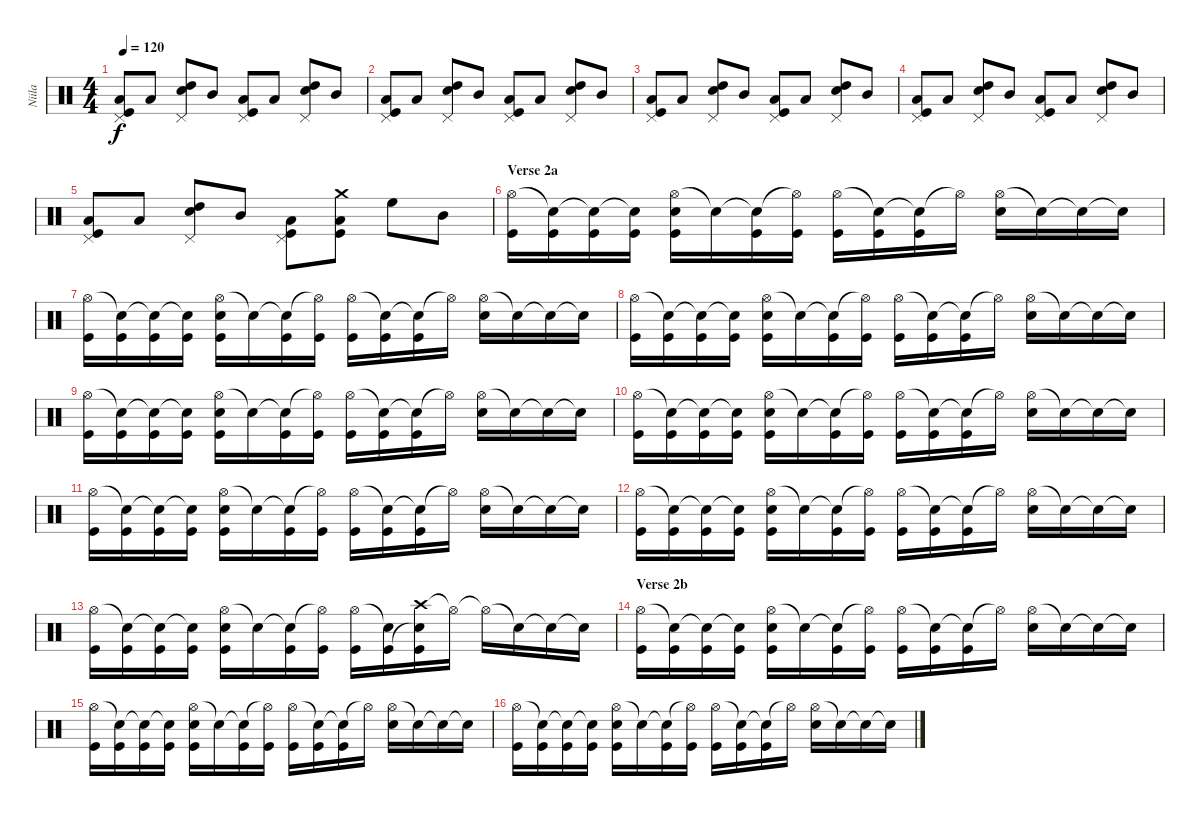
\track ("Niila" "Niila") {instrument percussion}
\staff {score}
\articulation defaults
\ts (4 4)
\tempo 120
\clef neutral
\ks c
("Pedal Hi-Hat (hit)" "Low Tom (hit)" "Kick (hit)").8{dy f volume 10} "Low Tom (hit)".8 ("Pedal Hi-Hat (hit)" "High Tom (hit)" "Snare (hit) 2").8 "Mid Tom (hit)".8 ("Pedal Hi-Hat (hit)" "Low Tom (hit)" "Kick (hit)").8 "Low Tom (hit)".8 ("Pedal Hi-Hat (hit)" "High Tom (hit)" "Snare (hit) 2").8 "Mid Tom (hit)".8 |
("Pedal Hi-Hat (hit)" "Low Tom (hit)" "Kick (hit)").8{volume 10} "Low Tom (hit)".8 ("Pedal Hi-Hat (hit)" "High Tom (hit)" "Snare (hit) 2").8 "Mid Tom (hit)".8 ("Pedal Hi-Hat (hit)" "Low Tom (hit)" "Kick (hit)").8 "Low Tom (hit)".8 ("Pedal Hi-Hat (hit)" "High Tom (hit)" "Snare (hit) 2").8 "Mid Tom (hit)".8 |
("Pedal Hi-Hat (hit)" "Low Tom (hit)" "Kick (hit)").8{volume 10} "Low Tom (hit)".8 ("Pedal Hi-Hat (hit)" "High Tom (hit)" "Snare (hit) 2").8 "Mid Tom (hit)".8 ("Pedal Hi-Hat (hit)" "Low Tom (hit)" "Kick (hit)").8 "Low Tom (hit)".8 ("Pedal Hi-Hat (hit)" "High Tom (hit)" "Snare (hit) 2").8 "Mid Tom (hit)".8 |
("Pedal Hi-Hat (hit)" "Low Tom (hit)" "Kick (hit)").8{volume 10} "Low Tom (hit)".8 ("Pedal Hi-Hat (hit)" "High Tom (hit)" "Snare (hit) 2").8 "Mid Tom (hit)".8 ("Pedal Hi-Hat (hit)" "Low Tom (hit)" "Kick (hit)").8 "Low Tom (hit)".8 ("Pedal Hi-Hat (hit)" "High Tom (hit)" "Snare (hit) 2").8 "Mid Tom (hit)".8 |
("Pedal Hi-Hat (hit)" "Low Tom (hit)" "Kick (hit)").8 "Low Tom (hit)".8 ("Pedal Hi-Hat (hit)" "High Tom (hit)" "Snare (hit) 2").8 "Mid Tom (hit)".8 ("Pedal Hi-Hat (hit)" "Low Tom (hit)" "Kick (hit)").8 ("Crash medium (hit)" "Low Tom (hit)" "Kick (hit)").8 "High Floor Tom (hit)".8 "Mid Tom (hit)".8 |
\section ("" "Verse 2a")
("Hi-Hat (open)" "Kick (hit)").16 ("Snare (hit)"{t} "Kick (hit)").16 ("Snare (hit)"{t} "Kick (hit)").16 ("Snare (hit)"{t} "Kick (hit)").16 ("Hi-Hat (open)" "Snare (hit) 2" "Kick (hit)").16 "Snare (hit)"{t}.16 ("Snare (hit)"{t} "Kick (hit)").16 ("Hi-Hat (open)"{t} "Kick (hit)").16 ("Hi-Hat (open)" "Kick (hit)").16 ("Snare (hit)"{t} "Kick (hit)").16 ("Snare (hit)"{t} "Kick (hit)").16 "Hi-Hat (open)"{t}.16 ("Hi-Hat (open)" "Snare (hit) 2").16 "Snare (hit)"{t}.16 "Snare (hit)"{t}.16 "Snare (hit)"{t}.16 |
("Hi-Hat (open)" "Kick (hit)").16 ("Snare (hit)"{t} "Kick (hit)").16 ("Snare (hit)"{t} "Kick (hit)").16 ("Snare (hit)"{t} "Kick (hit)").16 ("Hi-Hat (open)" "Snare (hit) 2" "Kick (hit)").16 "Snare (hit)"{t}.16 ("Snare (hit)"{t} "Kick (hit)").16 ("Hi-Hat (open)"{t} "Kick (hit)").16 ("Hi-Hat (open)" "Kick (hit)").16 ("Snare (hit)"{t} "Kick (hit)").16 ("Snare (hit)"{t} "Kick (hit)").16 "Hi-Hat (open)"{t}.16 ("Hi-Hat (open)" "Snare (hit) 2").16 "Snare (hit)"{t}.16 "Snare (hit)"{t}.16 "Snare (hit)"{t}.16 |
("Hi-Hat (open)" "Kick (hit)").16 ("Snare (hit)"{t} "Kick (hit)").16 ("Snare (hit)"{t} "Kick (hit)").16 ("Snare (hit)"{t} "Kick (hit)").16 ("Hi-Hat (open)" "Snare (hit) 2" "Kick (hit)").16 "Snare (hit)"{t}.16 ("Snare (hit)"{t} "Kick (hit)").16 ("Hi-Hat (open)"{t} "Kick (hit)").16 ("Hi-Hat (open)" "Kick (hit)").16 ("Snare (hit)"{t} "Kick (hit)").16 ("Snare (hit)"{t} "Kick (hit)").16 "Hi-Hat (open)"{t}.16 ("Hi-Hat (open)" "Snare (hit) 2").16 "Snare (hit)"{t}.16 "Snare (hit)"{t}.16 "Snare (hit)"{t}.16 |
("Hi-Hat (open)" "Kick (hit)").16 ("Snare (hit)"{t} "Kick (hit)").16 ("Snare (hit)"{t} "Kick (hit)").16 ("Snare (hit)"{t} "Kick (hit)").16 ("Hi-Hat (open)" "Snare (hit) 2" "Kick (hit)").16 "Snare (hit)"{t}.16 ("Snare (hit)"{t} "Kick (hit)").16 ("Hi-Hat (open)"{t} "Kick (hit)").16 ("Hi-Hat (open)" "Kick (hit)").16 ("Snare (hit)"{t} "Kick (hit)").16 ("Snare (hit)"{t} "Kick (hit)").16 "Hi-Hat (open)"{t}.16 ("Hi-Hat (open)" "Snare (hit) 2").16 "Snare (hit)"{t}.16 "Snare (hit)"{t}.16 "Snare (hit)"{t}.16 |
("Hi-Hat (open)" "Kick (hit)").16 ("Snare (hit)"{t} "Kick (hit)").16 ("Snare (hit)"{t} "Kick (hit)").16 ("Snare (hit)"{t} "Kick (hit)").16 ("Hi-Hat (open)" "Snare (hit) 2" "Kick (hit)").16 "Snare (hit)"{t}.16 ("Snare (hit)"{t} "Kick (hit)").16 ("Hi-Hat (open)"{t} "Kick (hit)").16 ("Hi-Hat (open)" "Kick (hit)").16 ("Snare (hit)"{t} "Kick (hit)").16 ("Snare (hit)"{t} "Kick (hit)").16 "Hi-Hat (open)"{t}.16 ("Hi-Hat (open)" "Snare (hit) 2").16 "Snare (hit)"{t}.16 "Snare (hit)"{t}.16 "Snare (hit)"{t}.16 |
("Hi-Hat (open)" "Kick (hit)").16 ("Snare (hit)"{t} "Kick (hit)").16 ("Snare (hit)"{t} "Kick (hit)").16 ("Snare (hit)"{t} "Kick (hit)").16 ("Hi-Hat (open)" "Snare (hit) 2" "Kick (hit)").16 "Snare (hit)"{t}.16 ("Snare (hit)"{t} "Kick (hit)").16 ("Hi-Hat (open)"{t} "Kick (hit)").16 ("Hi-Hat (open)" "Kick (hit)").16 ("Snare (hit)"{t} "Kick (hit)").16 ("Snare (hit)"{t} "Kick (hit)").16 "Hi-Hat (open)"{t}.16 ("Hi-Hat (open)" "Snare (hit) 2").16 "Snare (hit)"{t}.16 "Snare (hit)"{t}.16 "Snare (hit)"{t}.16 |
("Hi-Hat (open)" "Kick (hit)").16 ("Snare (hit)"{t} "Kick (hit)").16 ("Snare (hit)"{t} "Kick (hit)").16 ("Snare (hit)"{t} "Kick (hit)").16 ("Hi-Hat (open)" "Snare (hit) 2" "Kick (hit)").16 "Snare (hit)"{t}.16 ("Snare (hit)"{t} "Kick (hit)").16 ("Hi-Hat (open)"{t} "Kick (hit)").16 ("Hi-Hat (open)" "Kick (hit)").16 ("Snare (hit)"{t} "Kick (hit)").16 ("Snare (hit)"{t} "Kick (hit)").16 "Hi-Hat (open)"{t}.16 ("Hi-Hat (open)" "Snare (hit) 2").16 "Snare (hit)"{t}.16 "Snare (hit)"{t}.16 "Snare (hit)"{t}.16 |
("Hi-Hat (open)" "Kick (hit)").16 ("Snare (hit)"{t} "Kick (hit)").16 ("Snare (hit)"{t} "Kick (hit)").16 ("Snare (hit)"{t} "Kick (hit)").16 ("Hi-Hat (open)" "Snare (hit) 2" "Kick (hit)").16 "Snare (hit)"{t}.16 ("Snare (hit)"{t} "Kick (hit)").16 ("Hi-Hat (open)"{t} "Kick (hit)").16 ("Hi-Hat (open)" "Kick (hit)").16 ("Snare (hit)"{t} "Kick (hit)").16 ("Crash high (hit)" "Snare (hit)"{t} "Kick (hit)").16 "Hi-Hat (open)"{t}.16 "Hi-Hat (open)"{t}.16 "Snare (hit)"{t}.16 "Snare (hit)"{t}.16 "Snare (hit)"{t}.16 |
\section ("" "Verse 2b")
("Hi-Hat (open)" "Kick (hit)").16 ("Snare (hit)"{t} "Kick (hit)").16 ("Snare (hit)"{t} "Kick (hit)").16 ("Snare (hit)"{t} "Kick (hit)").16 ("Hi-Hat (open)" "Snare (hit) 2" "Kick (hit)").16 "Snare (hit)"{t}.16 ("Snare (hit)"{t} "Kick (hit)").16 ("Hi-Hat (open)"{t} "Kick (hit)").16 ("Hi-Hat (open)" "Kick (hit)").16 ("Snare (hit)"{t} "Kick (hit)").16 ("Snare (hit)"{t} "Kick (hit)").16 "Hi-Hat (open)"{t}.16 ("Hi-Hat (open)" "Snare (hit) 2").16 "Snare (hit)"{t}.16 "Snare (hit)"{t}.16 "Snare (hit)"{t}.16 |
("Hi-Hat (open)" "Kick (hit)").16 ("Snare (hit)"{t} "Kick (hit)").16 ("Snare (hit)"{t} "Kick (hit)").16 ("Snare (hit)"{t} "Kick (hit)").16 ("Hi-Hat (open)" "Snare (hit) 2" "Kick (hit)").16 "Snare (hit)"{t}.16 ("Snare (hit)"{t} "Kick (hit)").16 ("Hi-Hat (open)"{t} "Kick (hit)").16 ("Hi-Hat (open)" "Kick (hit)").16 ("Snare (hit)"{t} "Kick (hit)").16 ("Snare (hit)"{t} "Kick (hit)").16 "Hi-Hat (open)"{t}.16 ("Hi-Hat (open)" "Snare (hit) 2").16 "Snare (hit)"{t}.16 "Snare (hit)"{t}.16 "Snare (hit)"{t}.16 |
("Hi-Hat (open)" "Kick (hit)").16 ("Snare (hit)"{t} "Kick (hit)").16 ("Snare (hit)"{t} "Kick (hit)").16 ("Snare (hit)"{t} "Kick (hit)").16 ("Hi-Hat (open)" "Snare (hit) 2" "Kick (hit)").16 "Snare (hit)"{t}.16 ("Snare (hit)"{t} "Kick (hit)").16 ("Hi-Hat (open)"{t} "Kick (hit)").16 ("Hi-Hat (open)" "Kick (hit)").16 ("Snare (hit)"{t} "Kick (hit)").16 ("Snare (hit)"{t} "Kick (hit)").16 "Hi-Hat (open)"{t}.16 ("Hi-Hat (open)" "Snare (hit) 2").16 "Snare (hit)"{t}.16 "Snare (hit)"{t}.16 "Snare (hit)"{t}.16
